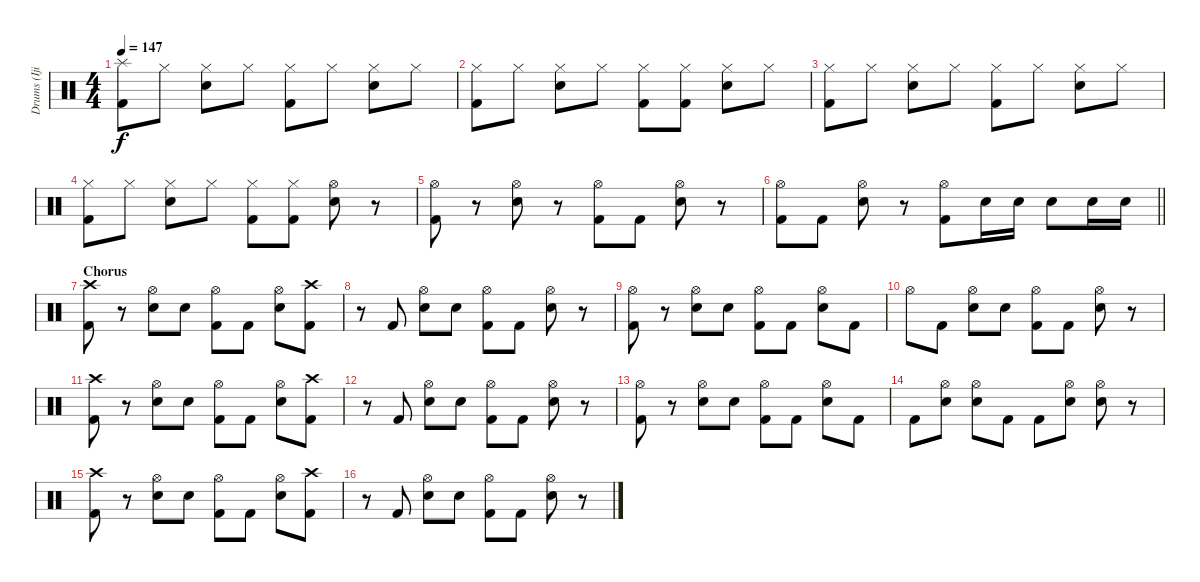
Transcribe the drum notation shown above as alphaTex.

\track ("Drums (Ijichi)" "Drums (Iji") {instrument percussion}
\staff {score}
\articulation defaults
\ts (4 4)
\tempo 147
\clef neutral
\ks c
("Splash (hit)" "Kick (hit) 2").8{dy f} "Hi-Hat (closed)".8 ("Hi-Hat (closed)" "Snare (hit) 2").8 "Hi-Hat (closed)".8 ("Hi-Hat (closed)" "Kick (hit) 2").8 "Hi-Hat (closed)".8 ("Hi-Hat (closed)" "Snare (hit) 2").8 "Hi-Hat (closed)".8 |
("Hi-Hat (closed)" "Kick (hit) 2").8 "Hi-Hat (closed)".8 ("Hi-Hat (closed)" "Snare (hit) 2").8 "Hi-Hat (closed)".8 ("Hi-Hat (closed)" "Kick (hit) 2").8 ("Hi-Hat (closed)" "Kick (hit) 2").8 ("Hi-Hat (closed)" "Snare (hit) 2").8 "Hi-Hat (closed)".8 |
("Hi-Hat (closed)" "Kick (hit) 2").8 "Hi-Hat (closed)".8 ("Hi-Hat (closed)" "Snare (hit) 2").8 "Hi-Hat (closed)".8 ("Hi-Hat (closed)" "Kick (hit) 2").8 "Hi-Hat (closed)".8 ("Hi-Hat (closed)" "Snare (hit) 2").8 "Hi-Hat (closed)".8 |
("Hi-Hat (closed)" "Kick (hit) 2").8 "Hi-Hat (closed)".8 ("Hi-Hat (closed)" "Snare (hit) 2").8 "Hi-Hat (closed)".8 ("Hi-Hat (closed)" "Kick (hit) 2").8 ("Hi-Hat (closed)" "Kick (hit) 2").8 ("Hi-Hat (open)" "Snare (hit) 2").8 r.8 |
("Hi-Hat (open)" "Kick (hit) 2").8 r.8 ("Hi-Hat (open)" "Snare (hit) 2").8 r.8 ("Hi-Hat (open)" "Kick (hit) 2").8 "Kick (hit) 2".8 ("Hi-Hat (open)" "Snare (hit) 2").8 r.8 |
\barLineRight lightlight
("Hi-Hat (open)" "Kick (hit) 2").8 "Kick (hit) 2".8 ("Hi-Hat (open)" "Snare (hit) 2").8 r.8 ("Hi-Hat (open)" "Kick (hit) 2").8 "Snare (hit) 2".16 "Snare (hit) 2".16 "Snare (hit) 2".8 "Snare (hit) 2".16 "Snare (hit) 2".16 |
\section ("" "Chorus")
("Crash high (hit)" "Kick (hit) 2").8 r.8 ("Hi-Hat (open)" "Snare (hit) 2").8 "Snare (hit) 2".8 ("Hi-Hat (open)" "Kick (hit) 2").8 "Kick (hit) 2".8 ("Hi-Hat (open)" "Snare (hit) 2").8 ("Crash high (hit)" "Kick (hit) 2").8 |
r.8 "Kick (hit) 2".8 ("Hi-Hat (open)" "Snare (hit) 2").8 "Snare (hit) 2".8 ("Hi-Hat (open)" "Kick (hit) 2").8 "Kick (hit) 2".8 ("Hi-Hat (open)" "Snare (hit) 2").8 r.8 |
("Hi-Hat (open)" "Kick (hit) 2").8 r.8 ("Hi-Hat (open)" "Snare (hit) 2").8 "Snare (hit) 2".8 ("Hi-Hat (open)" "Kick (hit) 2").8 "Kick (hit) 2".8 ("Hi-Hat (open)" "Snare (hit) 2").8 "Kick (hit) 2".8 |
"Hi-Hat (open)".8 "Kick (hit) 2".8 ("Hi-Hat (open)" "Snare (hit) 2").8 "Snare (hit) 2".8 ("Hi-Hat (open)" "Kick (hit) 2").8 "Kick (hit) 2".8 ("Hi-Hat (open)" "Snare (hit) 2").8 r.8 |
("Crash high (hit)" "Kick (hit) 2").8 r.8 ("Hi-Hat (open)" "Snare (hit) 2").8 "Snare (hit) 2".8 ("Hi-Hat (open)" "Kick (hit) 2").8 "Kick (hit) 2".8 ("Hi-Hat (open)" "Snare (hit) 2").8 ("Crash high (hit)" "Kick (hit) 2").8 |
r.8 "Kick (hit) 2".8 ("Hi-Hat (open)" "Snare (hit) 2").8 "Snare (hit) 2".8 ("Hi-Hat (open)" "Kick (hit) 2").8 "Kick (hit) 2".8 ("Hi-Hat (open)" "Snare (hit) 2").8 r.8 |
("Hi-Hat (open)" "Kick (hit) 2").8 r.8 ("Hi-Hat (open)" "Snare (hit) 2").8 "Snare (hit) 2".8 ("Hi-Hat (open)" "Kick (hit) 2").8 "Kick (hit) 2".8 ("Hi-Hat (open)" "Snare (hit) 2").8 "Kick (hit) 2".8 |
"Kick (hit) 2".8 ("Hi-Hat (open)" "Snare (hit) 2").8 ("Hi-Hat (open)" "Snare (hit) 2").8 "Kick (hit) 2".8 "Kick (hit) 2".8 ("Hi-Hat (open)" "Snare (hit) 2").8 ("Hi-Hat (open)" "Snare (hit) 2").8 r.8 |
("Crash high (hit)" "Kick (hit) 2").8 r.8 ("Hi-Hat (open)" "Snare (hit) 2").8 "Snare (hit) 2".8 ("Hi-Hat (open)" "Kick (hit) 2").8 "Kick (hit) 2".8 ("Hi-Hat (open)" "Snare (hit) 2").8 ("Crash high (hit)" "Kick (hit) 2").8 |
r.8 "Kick (hit) 2".8 ("Hi-Hat (open)" "Snare (hit) 2").8 "Snare (hit) 2".8 ("Hi-Hat (open)" "Kick (hit) 2").8 "Kick (hit) 2".8 ("Hi-Hat (open)" "Snare (hit) 2").8 r.8
